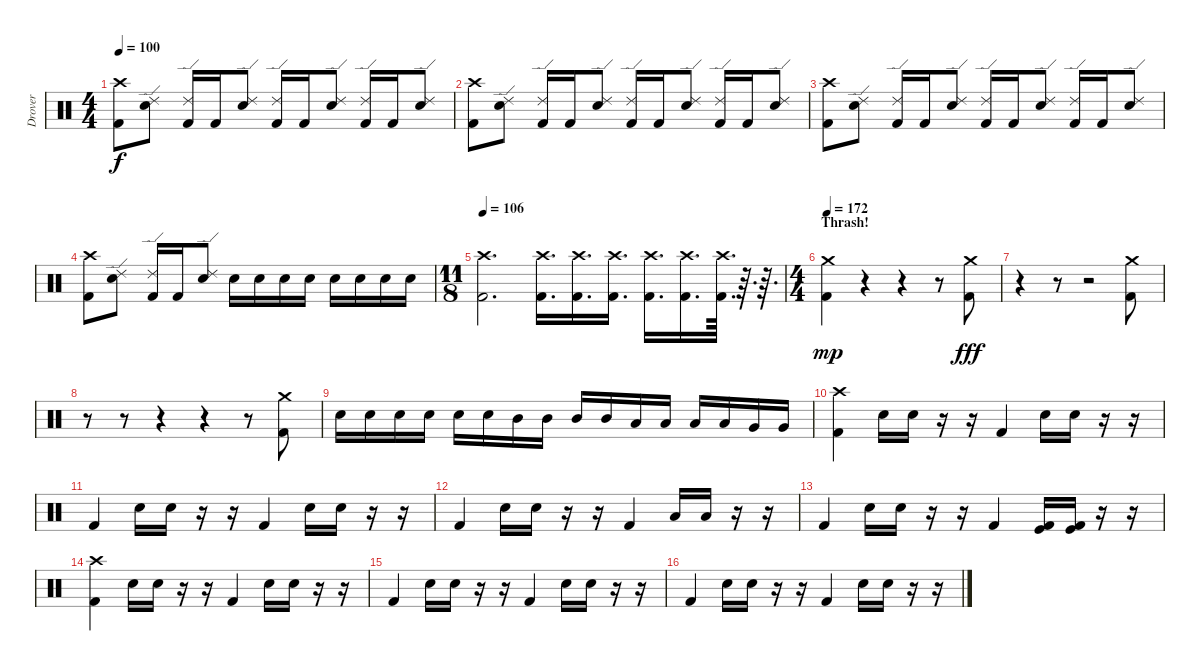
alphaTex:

\track ("Drover" "Drover") {instrument percussion}
\staff {score}
\articulation defaults
\ts (4 4)
\tempo 100
\clef neutral
\ks c
("Crash high (hit)" "Kick (hit) 2").8{dy f} ("Ride (edge) 2" "Electric Snare (hit)").8 ("Ride (edge) 2" "Kick (hit) 2").16 "Kick (hit) 2".16 ("Ride (edge) 2" "Electric Snare (hit)").8 ("Ride (edge) 2" "Kick (hit) 2").16 "Kick (hit) 2".16 ("Ride (edge) 2" "Electric Snare (hit)").8 ("Ride (edge) 2" "Kick (hit) 2").16 "Kick (hit) 2".16 ("Ride (edge) 2" "Electric Snare (hit)").8 |
("Crash high (hit)" "Kick (hit) 2").8 ("Ride (edge) 2" "Electric Snare (hit)").8 ("Ride (edge) 2" "Kick (hit) 2").16 "Kick (hit) 2".16 ("Ride (edge) 2" "Electric Snare (hit)").8 ("Ride (edge) 2" "Kick (hit) 2").16 "Kick (hit) 2".16 ("Ride (edge) 2" "Electric Snare (hit)").8 ("Ride (edge) 2" "Kick (hit) 2").16 "Kick (hit) 2".16 ("Ride (edge) 2" "Electric Snare (hit)").8 |
("Crash high (hit)" "Kick (hit) 2").8 ("Ride (edge) 2" "Electric Snare (hit)").8 ("Ride (edge) 2" "Kick (hit) 2").16 "Kick (hit) 2".16 ("Ride (edge) 2" "Electric Snare (hit)").8 ("Ride (edge) 2" "Kick (hit) 2").16 "Kick (hit) 2".16 ("Ride (edge) 2" "Electric Snare (hit)").8 ("Ride (edge) 2" "Kick (hit) 2").16 "Kick (hit) 2".16 ("Ride (edge) 2" "Electric Snare (hit)").8 |
("Crash high (hit)" "Kick (hit) 2").8 ("Ride (edge) 2" "Electric Snare (hit)").8 ("Ride (edge) 2" "Kick (hit) 2").16 "Kick (hit) 2".16 ("Ride (edge) 2" "Electric Snare (hit)").8 "Electric Snare (hit)".16 "Electric Snare (hit)".16 "Electric Snare (hit)".16 "Electric Snare (hit)".16 "Electric Snare (hit)".16 "Electric Snare (hit)".16 "Electric Snare (hit)".16 "Electric Snare (hit)".16 |
\ts (11 8)
\tempo 106
("Crash high (hit)" "Kick (hit) 2").2{d} ("Crash high (hit)" "Kick (hit) 2").16{d} ("Crash high (hit)" "Kick (hit) 2").16{d} ("Crash high (hit)" "Kick (hit) 2").16{d} ("Crash high (hit)" "Kick (hit) 2").16{d} ("Crash high (hit)" "Kick (hit) 2").16{d} ("Crash high (hit)" "Kick (hit) 2").64{d} r.64{d} r.64{d} |
\ts (4 4)
\section ("" "Thrash!")
\tempo 172
("Crash medium (hit)" "Kick (hit) 2").4{dy mp} r.4 r.4 r.8 ("Crash medium (hit)" "Kick (hit) 2").8{dy fff} |
r.4 r.8 r.2 ("Crash medium (hit)" "Kick (hit) 2").8 |
r.8 r.8 r.4 r.4 r.8 ("Crash medium (hit)" "Kick (hit) 2").8 |
"Electric Snare (hit)".16 "Electric Snare (hit)".16 "Electric Snare (hit)".16 "Electric Snare (hit)".16 "Electric Snare (hit)".16 "Electric Snare (hit)".16 "Mid Tom (hit)".16 "Mid Tom (hit)".16 "Mid Tom (hit)".16 "Mid Tom (hit)".16 "Low Tom (hit)".16 "Low Tom (hit)".16 "Low Tom (hit)".16 "Low Tom (hit)".16 "Very Low Tom (hit)".16 "Very Low Tom (hit)".16 |
("Crash high (hit)" "Kick (hit) 2").4 "Electric Snare (hit)".16 "Electric Snare (hit)".16 r.16 r.16 "Kick (hit) 2".4 "Electric Snare (hit)".16 "Electric Snare (hit)".16 r.16 r.16 |
"Kick (hit) 2".4 "Electric Snare (hit)".16 "Electric Snare (hit)".16 r.16 r.16 "Kick (hit) 2".4 "Electric Snare (hit)".16 "Electric Snare (hit)".16 r.16 r.16 |
"Kick (hit) 2".4 "Electric Snare (hit)".16 "Electric Snare (hit)".16 r.16 r.16 "Kick (hit) 2".4 "Low Tom (hit)".16 "Low Tom (hit)".16 r.16 r.16 |
"Kick (hit) 2".4 "Electric Snare (hit)".16 "Electric Snare (hit)".16 r.16 r.16 "Kick (hit) 2".4 ("Kick (hit)" "Kick (hit) 2").16 ("Kick (hit)" "Kick (hit) 2").16 r.16 r.16 |
("Crash high (hit)" "Kick (hit) 2").4 "Electric Snare (hit)".16 "Electric Snare (hit)".16 r.16 r.16 "Kick (hit) 2".4 "Electric Snare (hit)".16 "Electric Snare (hit)".16 r.16 r.16 |
"Kick (hit) 2".4 "Electric Snare (hit)".16 "Electric Snare (hit)".16 r.16 r.16 "Kick (hit) 2".4 "Electric Snare (hit)".16 "Electric Snare (hit)".16 r.16 r.16 |
"Kick (hit) 2".4 "Electric Snare (hit)".16 "Electric Snare (hit)".16 r.16 r.16 "Kick (hit) 2".4 "Electric Snare (hit)".16 "Electric Snare (hit)".16 r.16 r.16
